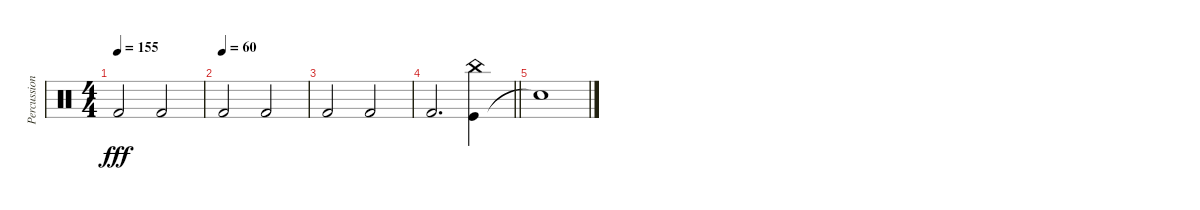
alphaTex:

\track ("Percussion" "Percussion") {instrument percussion}
\staff {score}
\articulation defaults
\ts (4 4)
\tempo 155
\clef neutral
\ks c "Kick (hit) 2".2{dy fff} "Kick (hit) 2".2
|
\tempo (60)
"Kick (hit) 2".2 "Kick (hit) 2".2 |
"Kick (hit) 2".2 "Kick (hit) 2".2 |
\barLineRight lightlight "Kick (hit) 2".2{d}
("Kick (hit)" "China (hit)").4 |
"Snare (hit)"{t}.1
